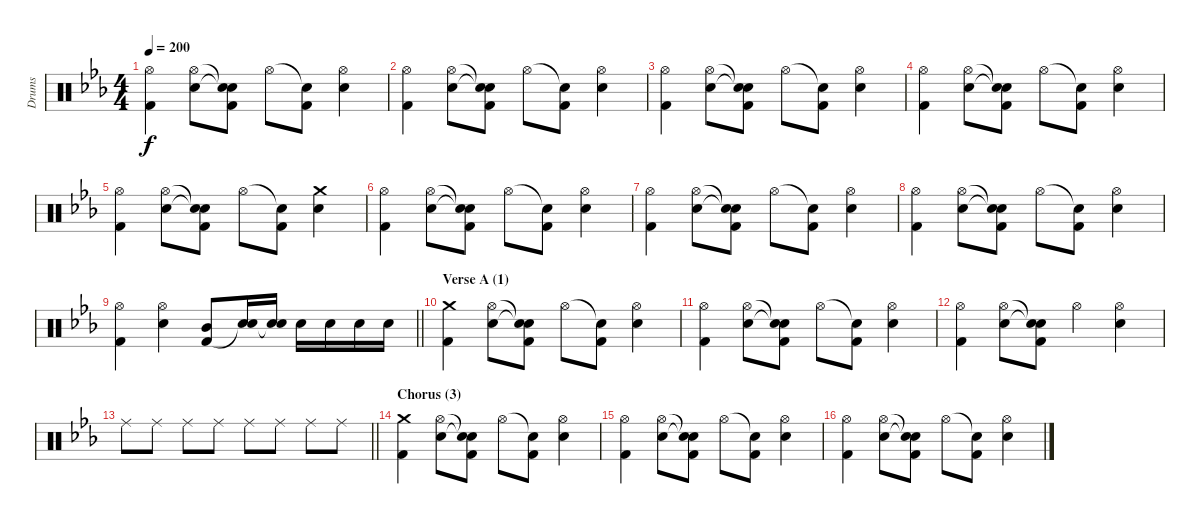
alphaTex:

\track ("Drums" "Drums") {instrument percussion}
\staff {score}
\articulation defaults
\ts (4 4)
\tempo 200
\clef neutral
\ks cminor
("Hi-Hat (open)" "Kick (hit) 2").4{dy f} ("Hi-Hat (open)" "Electric Snare (hit)").8 ("Snare (hit)"{t} "Snare (hit)"{t} "Kick (hit) 2").8 "Hi-Hat (open)".8 ("Snare (hit)"{t} "Kick (hit) 2").8 ("Hi-Hat (open)" "Electric Snare (hit)").4 |
("Hi-Hat (open)" "Kick (hit) 2").4 ("Hi-Hat (open)" "Electric Snare (hit)").8 ("Snare (hit)"{t} "Snare (hit)"{t} "Kick (hit) 2").8 "Hi-Hat (open)".8 ("Snare (hit)"{t} "Kick (hit) 2").8 ("Hi-Hat (open)" "Electric Snare (hit)").4 |
("Hi-Hat (open)" "Kick (hit) 2").4 ("Hi-Hat (open)" "Electric Snare (hit)").8 ("Snare (hit)"{t} "Snare (hit)"{t} "Kick (hit) 2").8 "Hi-Hat (open)".8 ("Snare (hit)"{t} "Kick (hit) 2").8 ("Hi-Hat (open)" "Electric Snare (hit)").4 |
("Hi-Hat (open)" "Kick (hit) 2").4 ("Hi-Hat (open)" "Electric Snare (hit)").8 ("Snare (hit)"{t} "Snare (hit)"{t} "Kick (hit) 2").8 "Hi-Hat (open)".8 ("Snare (hit)"{t} "Kick (hit) 2").8 ("Hi-Hat (open)" "Electric Snare (hit)").4 |
("Hi-Hat (open)" "Kick (hit) 2").4 ("Hi-Hat (open)" "Electric Snare (hit)").8 ("Snare (hit)"{t} "Snare (hit)"{t} "Kick (hit) 2").8 "Hi-Hat (open)".8 ("Snare (hit)"{t} "Kick (hit) 2").8 ("Crash medium (hit)" "Electric Snare (hit)").4 |
("Hi-Hat (open)" "Kick (hit) 2").4 ("Hi-Hat (open)" "Electric Snare (hit)").8 ("Snare (hit)"{t} "Snare (hit)"{t} "Kick (hit) 2").8 "Hi-Hat (open)".8 ("Snare (hit)"{t} "Kick (hit) 2").8 ("Hi-Hat (open)" "Electric Snare (hit)").4 |
("Hi-Hat (open)" "Kick (hit) 2").4 ("Hi-Hat (open)" "Electric Snare (hit)").8 ("Snare (hit)"{t} "Snare (hit)"{t} "Kick (hit) 2").8 "Hi-Hat (open)".8 ("Snare (hit)"{t} "Kick (hit) 2").8 ("Hi-Hat (open)" "Electric Snare (hit)").4 |
("Hi-Hat (open)" "Kick (hit) 2").4 ("Hi-Hat (open)" "Electric Snare (hit)").8 ("Snare (hit)"{t} "Snare (hit)"{t} "Kick (hit) 2").8 "Hi-Hat (open)".8 ("Snare (hit)"{t} "Kick (hit) 2").8 ("Hi-Hat (open)" "Electric Snare (hit)").4 |
\barLineRight lightlight
("Hi-Hat (open)" "Kick (hit) 2").4 ("Hi-Hat (open)" "Electric Snare (hit)").4 ("Mid Tom (hit)" "Kick (hit) 2").8 ("Electric Snare (hit)" "Snare (hit)"{t}).16 ("Electric Snare (hit)" "Snare (hit)"{t}).16 "Electric Snare (hit)".16 "Electric Snare (hit)".16 "Electric Snare (hit)".16 "Electric Snare (hit)".16 |
\section ("" "Verse A (1)")
("Crash medium (hit)" "Kick (hit) 2").4 ("Hi-Hat (open)" "Electric Snare (hit)").8 ("Snare (hit)"{t} "Snare (hit)"{t} "Kick (hit) 2").8 "Hi-Hat (open)".8 ("Snare (hit)"{t} "Kick (hit) 2").8 ("Hi-Hat (open)" "Electric Snare (hit)").4 |
("Hi-Hat (open)" "Kick (hit) 2").4 ("Hi-Hat (open)" "Electric Snare (hit)").8 ("Snare (hit)"{t} "Snare (hit)"{t} "Kick (hit) 2").8 "Hi-Hat (open)".8 ("Snare (hit)"{t} "Kick (hit) 2").8 ("Hi-Hat (open)" "Electric Snare (hit)").4 |
("Hi-Hat (open)" "Kick (hit) 2").4 ("Hi-Hat (open)" "Electric Snare (hit)").8 ("Snare (hit)"{t} "Snare (hit)"{t} "Kick (hit) 2").8 "Hi-Hat (open)".4 ("Hi-Hat (open)" "Electric Snare (hit)").4 |
\barLineRight lightlight "Ride (middle)".8 "Ride (middle)".8 "Ride (middle)".8 "Ride (middle)".8 "Ride (middle)".8 "Ride (middle)".8 "Ride (middle)".8 "Ride (middle)".8
|
\section ("" "Chorus (3)")
("Crash medium (hit)" "Kick (hit) 2").4 ("Hi-Hat (open)" "Electric Snare (hit)").8 ("Snare (hit)"{t} "Snare (hit)"{t} "Kick (hit) 2").8 "Hi-Hat (open)".8 ("Snare (hit)"{t} "Kick (hit) 2").8 ("Hi-Hat (open)" "Electric Snare (hit)").4 |
("Hi-Hat (open)" "Kick (hit) 2").4 ("Hi-Hat (open)" "Electric Snare (hit)").8 ("Snare (hit)"{t} "Snare (hit)"{t} "Kick (hit) 2").8 "Hi-Hat (open)".8 ("Snare (hit)"{t} "Kick (hit) 2").8 ("Hi-Hat (open)" "Electric Snare (hit)").4 |
("Hi-Hat (open)" "Kick (hit) 2").4 ("Hi-Hat (open)" "Electric Snare (hit)").8 ("Snare (hit)"{t} "Snare (hit)"{t} "Kick (hit) 2").8 "Hi-Hat (open)".8 ("Snare (hit)"{t} "Kick (hit) 2").8 ("Hi-Hat (open)" "Electric Snare (hit)").4
